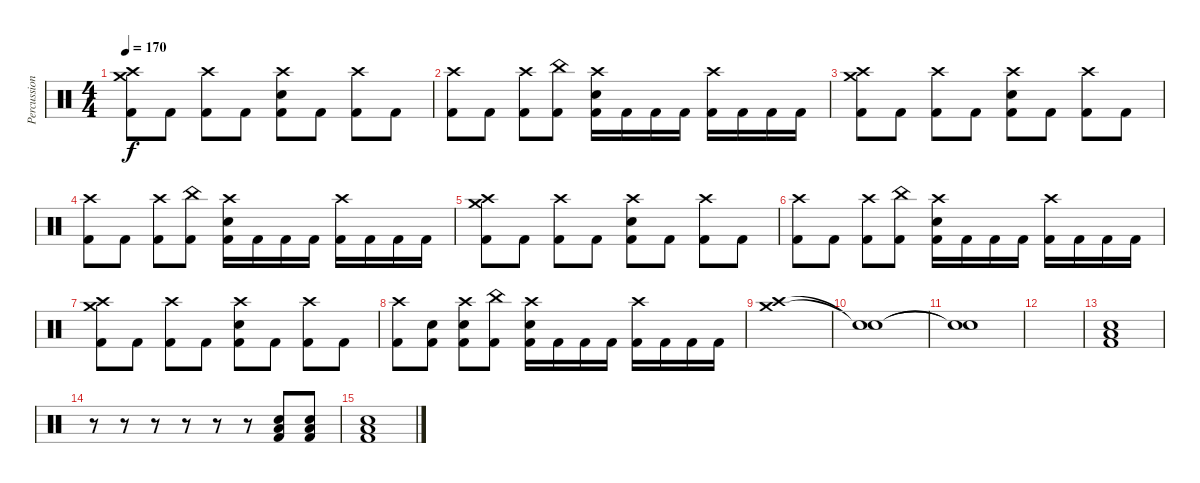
\track ("Percussion" "Percussion") {instrument percussion}
\staff {score}
\articulation defaults
\ts (4 4)
\tempo 170
\clef neutral
\ks c
("Crash medium (hit)" "Crash high (hit)" "Kick (hit) 2").8{dy f} "Kick (hit) 2".8 ("Crash high (hit)" "Kick (hit) 2").8 "Kick (hit) 2".8 ("Snare (hit) 2" "Crash high (hit)" "Kick (hit) 2").8 "Kick (hit) 2".8 ("Crash high (hit)" "Kick (hit) 2").8 "Kick (hit) 2".8 |
("Crash high (hit)" "Kick (hit) 2").8 "Kick (hit) 2".8 ("Crash high (hit)" "Kick (hit) 2").8 ("China (hit)" "Kick (hit) 2").8 ("Snare (hit) 2" "Crash high (hit)" "Kick (hit) 2").16 "Kick (hit) 2".16 "Kick (hit) 2".16 "Kick (hit) 2".16 ("Crash high (hit)" "Kick (hit) 2").16 "Kick (hit) 2".16 "Kick (hit) 2".16 "Kick (hit) 2".16 |
("Crash medium (hit)" "Crash high (hit)" "Kick (hit) 2").8 "Kick (hit) 2".8 ("Crash high (hit)" "Kick (hit) 2").8 "Kick (hit) 2".8 ("Snare (hit) 2" "Crash high (hit)" "Kick (hit) 2").8 "Kick (hit) 2".8 ("Crash high (hit)" "Kick (hit) 2").8 "Kick (hit) 2".8 |
("Crash high (hit)" "Kick (hit) 2").8 "Kick (hit) 2".8 ("Crash high (hit)" "Kick (hit) 2").8 ("China (hit)" "Kick (hit) 2").8 ("Snare (hit) 2" "Crash high (hit)" "Kick (hit) 2").16 "Kick (hit) 2".16 "Kick (hit) 2".16 "Kick (hit) 2".16 ("Crash high (hit)" "Kick (hit) 2").16 "Kick (hit) 2".16 "Kick (hit) 2".16 "Kick (hit) 2".16 |
("Crash medium (hit)" "Crash high (hit)" "Kick (hit) 2").8 "Kick (hit) 2".8 ("Crash high (hit)" "Kick (hit) 2").8 "Kick (hit) 2".8 ("Snare (hit) 2" "Crash high (hit)" "Kick (hit) 2").8 "Kick (hit) 2".8 ("Crash high (hit)" "Kick (hit) 2").8 "Kick (hit) 2".8 |
("Crash high (hit)" "Kick (hit) 2").8 "Kick (hit) 2".8 ("Crash high (hit)" "Kick (hit) 2").8 ("China (hit)" "Kick (hit) 2").8 ("Snare (hit) 2" "Crash high (hit)" "Kick (hit) 2").16 "Kick (hit) 2".16 "Kick (hit) 2".16 "Kick (hit) 2".16 ("Crash high (hit)" "Kick (hit) 2").16 "Kick (hit) 2".16 "Kick (hit) 2".16 "Kick (hit) 2".16 |
("Crash medium (hit)" "Crash high (hit)" "Kick (hit) 2").8 "Kick (hit) 2".8 ("Crash high (hit)" "Kick (hit) 2").8 "Kick (hit) 2".8 ("Snare (hit) 2" "Crash high (hit)" "Kick (hit) 2").8 "Kick (hit) 2".8 ("Crash high (hit)" "Kick (hit) 2").8 "Kick (hit) 2".8 |
("Crash high (hit)" "Kick (hit) 2").8 ("Snare (hit) 2" "Kick (hit) 2").8 ("Snare (hit) 2" "Crash high (hit)" "Kick (hit) 2").8 ("China (hit)" "Kick (hit) 2").8 ("Snare (hit) 2" "Crash high (hit)" "Kick (hit) 2").16 "Kick (hit) 2".16 "Kick (hit) 2".16 "Kick (hit) 2".16 ("Crash high (hit)" "Kick (hit) 2").16 "Kick (hit) 2".16 "Kick (hit) 2".16 "Kick (hit) 2".16 |
("Crash medium (hit)" "Crash high (hit)").1 |
("Snare (hit)"{t} "Snare (hit)"{t}).1 |
("Snare (hit)"{t} "Snare (hit)"{t}).1 |
|
("Low Floor Tom (hit)" "Kick (hit) 2" "Snare (hit) 2").1{volume 16} |
r.8 r.8 r.8 r.8 r.8 r.8 ("Low Floor Tom (hit)" "Kick (hit) 2" "Snare (hit) 2").8 ("Low Floor Tom (hit)" "Kick (hit) 2" "Snare (hit) 2").8 |
("Low Floor Tom (hit)" "Kick (hit) 2" "Snare (hit) 2").1
